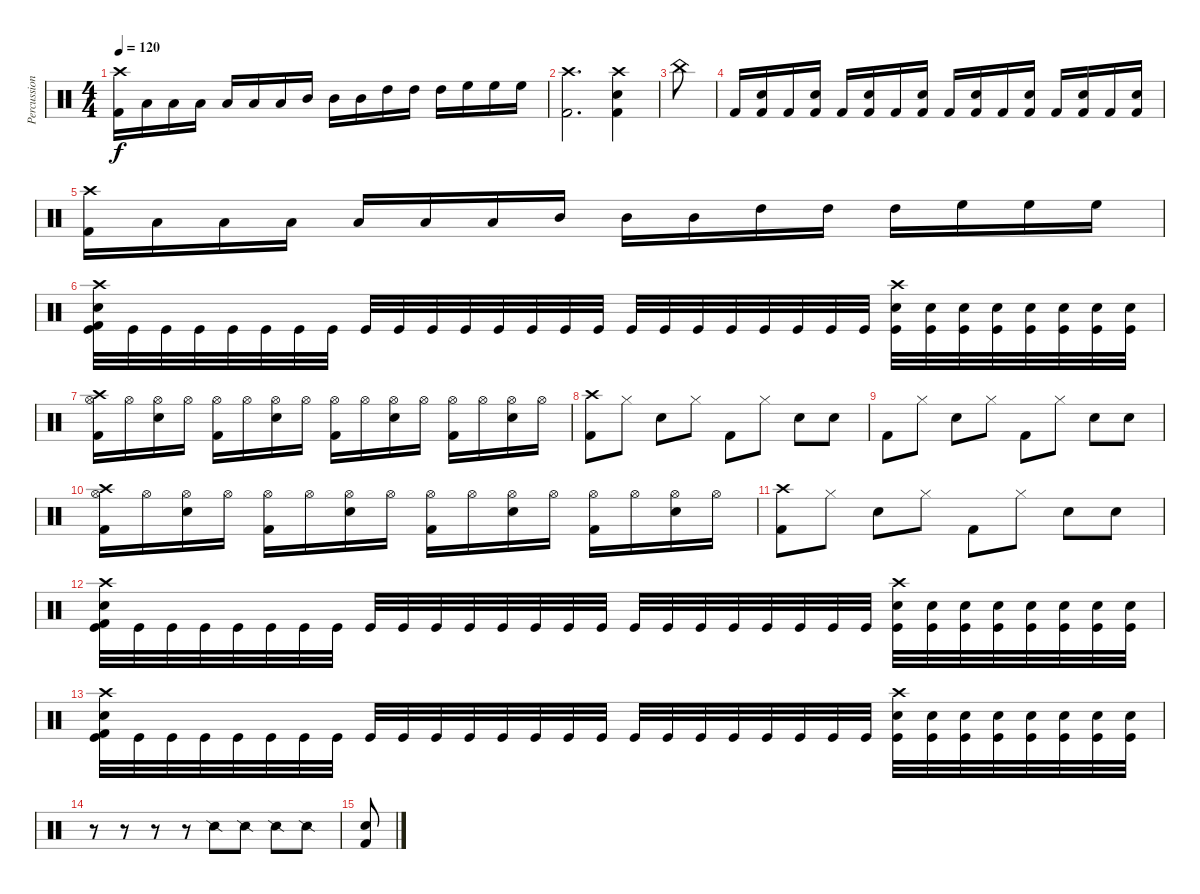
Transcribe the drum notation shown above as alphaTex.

\track ("Percussion" "Percussion") {instrument percussion}
\staff {score}
\articulation defaults
\ts (4 4)
\tempo 120
\clef neutral
\ks c
("Crash high (hit)" "Kick (hit) 2").16{dy f} "Low Floor Tom (hit)".16 "Low Floor Tom (hit)".16 "Low Floor Tom (hit)".16 "Low Tom (hit)".16 "Low Tom (hit)".16 "Low Tom (hit)".16 "Mid Tom (hit)".16 "Mid Tom (hit)".16 "Mid Tom (hit)".16 "High Tom (hit)".16 "High Tom (hit)".16 "High Tom (hit)".16 "High Floor Tom (hit)".16 "High Floor Tom (hit)".16 "High Floor Tom (hit)".16 |
("Kick (hit) 2" "Crash high (hit)").2{d} ("Crash high (hit)" "Kick (hit) 2" "Snare (hit) 2").4 |
"China (hit)".8 |
"Kick (hit) 2".16 ("Snare (hit) 2" "Kick (hit) 2").16 "Kick (hit) 2".16 ("Snare (hit) 2" "Kick (hit) 2").16 "Kick (hit) 2".16 ("Snare (hit) 2" "Kick (hit) 2").16 "Kick (hit) 2".16 ("Snare (hit) 2" "Kick (hit) 2").16 "Kick (hit) 2".16 ("Snare (hit) 2" "Kick (hit) 2").16 "Kick (hit) 2".16 ("Snare (hit) 2" "Kick (hit) 2").16 "Kick (hit) 2".16 ("Snare (hit) 2" "Kick (hit) 2").16 "Kick (hit) 2".16 ("Snare (hit) 2" "Kick (hit) 2").16 |
("Crash high (hit)" "Kick (hit) 2").16 "Low Floor Tom (hit)".16 "Low Floor Tom (hit)".16 "Low Floor Tom (hit)".16 "Low Tom (hit)".16 "Low Tom (hit)".16 "Low Tom (hit)".16 "Mid Tom (hit)".16 "Mid Tom (hit)".16 "Mid Tom (hit)".16 "High Tom (hit)".16 "High Tom (hit)".16 "High Tom (hit)".16 "High Floor Tom (hit)".16 "High Floor Tom (hit)".16 "High Floor Tom (hit)".16 |
("Electric Snare (hit)" "Crash high (hit)" "Kick (hit) 2" "Kick (hit)").32 "Kick (hit)".32 "Kick (hit)".32 "Kick (hit)".32 "Kick (hit)".32 "Kick (hit)".32 "Kick (hit)".32 "Kick (hit)".32 "Kick (hit)".32 "Kick (hit)".32 "Kick (hit)".32 "Kick (hit)".32 "Kick (hit)".32 "Kick (hit)".32 "Kick (hit)".32 "Kick (hit)".32 "Kick (hit)".32 "Kick (hit)".32 "Kick (hit)".32 "Kick (hit)".32 "Kick (hit)".32 "Kick (hit)".32 "Kick (hit)".32 "Kick (hit)".32 ("Electric Snare (hit)" "Crash high (hit)" "Kick (hit)").32 ("Electric Snare (hit)" "Kick (hit)").32 ("Electric Snare (hit)" "Kick (hit)").32 ("Electric Snare (hit)" "Kick (hit)").32 ("Electric Snare (hit)" "Kick (hit)").32 ("Electric Snare (hit)" "Kick (hit)").32 ("Electric Snare (hit)" "Kick (hit)").32 ("Electric Snare (hit)" "Kick (hit)").32 |
("Hi-Hat (open)" "Crash high (hit)" "Kick (hit) 2").16 "Hi-Hat (open)".16 ("Hi-Hat (open)" "Snare (hit) 2").16 "Hi-Hat (open)".16 ("Hi-Hat (open)" "Kick (hit) 2").16 "Hi-Hat (open)".16 ("Hi-Hat (open)" "Snare (hit) 2").16 "Hi-Hat (open)".16 ("Hi-Hat (open)" "Kick (hit) 2").16 "Hi-Hat (open)".16 ("Hi-Hat (open)" "Snare (hit) 2").16 "Hi-Hat (open)".16 ("Hi-Hat (open)" "Kick (hit) 2").16 "Hi-Hat (open)".16 ("Hi-Hat (open)" "Snare (hit) 2").16 "Hi-Hat (open)".16 |
("Crash high (hit)" "Kick (hit) 2").8 "Hi-Hat (closed)".8 "Snare (hit) 2".8 "Hi-Hat (closed)".8 "Kick (hit) 2".8 "Hi-Hat (closed)".8 "Snare (hit) 2".8 "Snare (hit) 2".8 |
"Kick (hit) 2".8 "Hi-Hat (closed)".8 "Snare (hit) 2".8 "Hi-Hat (closed)".8 "Kick (hit) 2".8 "Hi-Hat (closed)".8 "Snare (hit) 2".8 "Snare (hit) 2".8 |
("Hi-Hat (open)" "Crash high (hit)" "Kick (hit) 2").16 "Hi-Hat (open)".16 ("Hi-Hat (open)" "Snare (hit) 2").16 "Hi-Hat (open)".16 ("Hi-Hat (open)" "Kick (hit) 2").16 "Hi-Hat (open)".16 ("Hi-Hat (open)" "Snare (hit) 2").16 "Hi-Hat (open)".16 ("Hi-Hat (open)" "Kick (hit) 2").16 "Hi-Hat (open)".16 ("Hi-Hat (open)" "Snare (hit) 2").16 "Hi-Hat (open)".16 ("Hi-Hat (open)" "Kick (hit) 2").16 "Hi-Hat (open)".16 ("Hi-Hat (open)" "Snare (hit) 2").16 "Hi-Hat (open)".16 |
("Crash high (hit)" "Kick (hit) 2").8 "Hi-Hat (closed)".8 "Snare (hit) 2".8 "Hi-Hat (closed)".8 "Kick (hit) 2".8 "Hi-Hat (closed)".8 "Snare (hit) 2".8 "Snare (hit) 2".8 |
("Electric Snare (hit)" "Crash high (hit)" "Kick (hit) 2" "Kick (hit)").32 "Kick (hit)".32 "Kick (hit)".32 "Kick (hit)".32 "Kick (hit)".32 "Kick (hit)".32 "Kick (hit)".32 "Kick (hit)".32 "Kick (hit)".32 "Kick (hit)".32 "Kick (hit)".32 "Kick (hit)".32 "Kick (hit)".32 "Kick (hit)".32 "Kick (hit)".32 "Kick (hit)".32 "Kick (hit)".32 "Kick (hit)".32 "Kick (hit)".32 "Kick (hit)".32 "Kick (hit)".32 "Kick (hit)".32 "Kick (hit)".32 "Kick (hit)".32 ("Electric Snare (hit)" "Crash high (hit)" "Kick (hit)").32 ("Electric Snare (hit)" "Kick (hit)").32 ("Electric Snare (hit)" "Kick (hit)").32 ("Electric Snare (hit)" "Kick (hit)").32 ("Electric Snare (hit)" "Kick (hit)").32 ("Electric Snare (hit)" "Kick (hit)").32 ("Electric Snare (hit)" "Kick (hit)").32 ("Electric Snare (hit)" "Kick (hit)").32 |
("Electric Snare (hit)" "Crash high (hit)" "Kick (hit) 2" "Kick (hit)").32 "Kick (hit)".32 "Kick (hit)".32 "Kick (hit)".32 "Kick (hit)".32 "Kick (hit)".32 "Kick (hit)".32 "Kick (hit)".32 "Kick (hit)".32 "Kick (hit)".32 "Kick (hit)".32 "Kick (hit)".32 "Kick (hit)".32 "Kick (hit)".32 "Kick (hit)".32 "Kick (hit)".32 "Kick (hit)".32 "Kick (hit)".32 "Kick (hit)".32 "Kick (hit)".32 "Kick (hit)".32 "Kick (hit)".32 "Kick (hit)".32 "Kick (hit)".32 ("Electric Snare (hit)" "Crash high (hit)" "Kick (hit)").32 ("Electric Snare (hit)" "Kick (hit)").32 ("Electric Snare (hit)" "Kick (hit)").32 ("Electric Snare (hit)" "Kick (hit)").32 ("Electric Snare (hit)" "Kick (hit)").32 ("Electric Snare (hit)" "Kick (hit)").32 ("Electric Snare (hit)" "Kick (hit)").32 ("Electric Snare (hit)" "Kick (hit)").32 |
r.8 r.8 r.8 r.8 "Snare (side stick) 2".8 "Snare (side stick) 2".8 "Snare (side stick) 2".8 "Snare (side stick) 2".8 |
("Snare (hit) 2" "Kick (hit) 2").8
